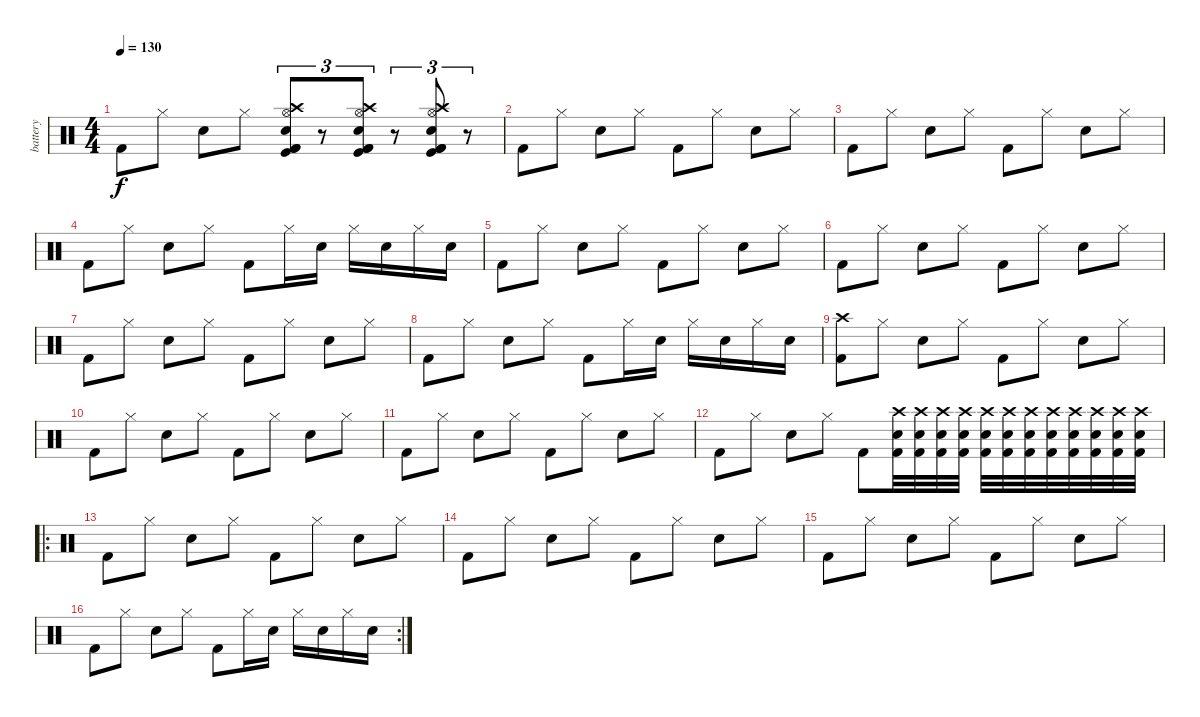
\track ("battery" "battery") {instrument percussion}
\staff {score}
\articulation defaults
\ts (4 4)
\tempo 130
\clef neutral
\ks c "Kick (hit) 2".8{dy f} "Hi-Hat (closed)".8 "Electric Snare (hit)".8 "Hi-Hat (closed)".8
("Crash high (hit)" "Hi-Hat (open)" "Electric Snare (hit)" "Kick (hit)" "Kick (hit) 2" "Kick (hit) 2").8{tu (3 2)} r.8{tu (3 2)} ("Crash high (hit)" "Hi-Hat (open)" "Electric Snare (hit)" "Kick (hit)" "Kick (hit) 2" "Kick (hit) 2").8{tu (3 2)} r.8{tu (3 2)} ("Crash high (hit)" "Hi-Hat (open)" "Electric Snare (hit)" "Kick (hit)" "Kick (hit) 2" "Kick (hit) 2").8{tu (3 2)} r.8{tu (3 2)} |
"Kick (hit) 2".8 "Hi-Hat (closed)".8 "Electric Snare (hit)".8 "Hi-Hat (closed)".8 "Kick (hit) 2".8 "Hi-Hat (closed)".8 "Electric Snare (hit)".8 "Hi-Hat (closed)".8 |
"Kick (hit) 2".8 "Hi-Hat (closed)".8 "Electric Snare (hit)".8 "Hi-Hat (closed)".8 "Kick (hit) 2".8 "Hi-Hat (closed)".8 "Electric Snare (hit)".8 "Hi-Hat (closed)".8 |
"Kick (hit) 2".8 "Hi-Hat (closed)".8 "Electric Snare (hit)".8 "Hi-Hat (closed)".8 "Kick (hit) 2".8 "Hi-Hat (closed)".16 "Electric Snare (hit)".16 "Hi-Hat (closed)".16 "Electric Snare (hit)".16 "Hi-Hat (closed)".16 "Electric Snare (hit)".16 |
"Kick (hit) 2".8 "Hi-Hat (closed)".8 "Electric Snare (hit)".8 "Hi-Hat (closed)".8 "Kick (hit) 2".8 "Hi-Hat (closed)".8 "Electric Snare (hit)".8 "Hi-Hat (closed)".8 |
"Kick (hit) 2".8 "Hi-Hat (closed)".8 "Electric Snare (hit)".8 "Hi-Hat (closed)".8 "Kick (hit) 2".8 "Hi-Hat (closed)".8 "Electric Snare (hit)".8 "Hi-Hat (closed)".8 |
"Kick (hit) 2".8 "Hi-Hat (closed)".8 "Electric Snare (hit)".8 "Hi-Hat (closed)".8 "Kick (hit) 2".8 "Hi-Hat (closed)".8 "Electric Snare (hit)".8 "Hi-Hat (closed)".8 |
"Kick (hit) 2".8 "Hi-Hat (closed)".8 "Electric Snare (hit)".8 "Hi-Hat (closed)".8 "Kick (hit) 2".8 "Hi-Hat (closed)".16 "Electric Snare (hit)".16 "Hi-Hat (closed)".16 "Electric Snare (hit)".16 "Hi-Hat (closed)".16 "Electric Snare (hit)".16 |
("Crash high (hit)" "Kick (hit) 2").8 "Hi-Hat (closed)".8 "Electric Snare (hit)".8 "Hi-Hat (closed)".8 "Kick (hit) 2".8 "Hi-Hat (closed)".8 "Electric Snare (hit)".8 "Hi-Hat (closed)".8 |
"Kick (hit) 2".8 "Hi-Hat (closed)".8 "Electric Snare (hit)".8 "Hi-Hat (closed)".8 "Kick (hit) 2".8 "Hi-Hat (closed)".8 "Electric Snare (hit)".8 "Hi-Hat (closed)".8 |
"Kick (hit) 2".8 "Hi-Hat (closed)".8 "Electric Snare (hit)".8 "Hi-Hat (closed)".8 "Kick (hit) 2".8 "Hi-Hat (closed)".8 "Electric Snare (hit)".8 "Hi-Hat (closed)".8 |
"Kick (hit) 2".8 "Hi-Hat (closed)".8 "Electric Snare (hit)".8 "Hi-Hat (closed)".8 "Kick (hit) 2".8 ("Crash high (hit)" "Kick (hit) 2" "Electric Snare (hit)").32 ("Crash high (hit)" "Kick (hit) 2" "Electric Snare (hit)").32 ("Crash high (hit)" "Kick (hit) 2" "Electric Snare (hit)").32 ("Crash high (hit)" "Kick (hit) 2" "Electric Snare (hit)").32 ("Crash high (hit)" "Kick (hit) 2" "Electric Snare (hit)").32 ("Crash high (hit)" "Kick (hit) 2" "Electric Snare (hit)").32 ("Crash high (hit)" "Kick (hit) 2" "Electric Snare (hit)").32 ("Crash high (hit)" "Kick (hit) 2" "Electric Snare (hit)").32 ("Crash high (hit)" "Kick (hit) 2" "Electric Snare (hit)").32 ("Crash high (hit)" "Kick (hit) 2" "Electric Snare (hit)").32 ("Crash high (hit)" "Kick (hit) 2" "Electric Snare (hit)").32 ("Crash high (hit)" "Kick (hit) 2" "Electric Snare (hit)").32 |
\ro "Kick (hit) 2".8 "Hi-Hat (closed)".8 "Electric Snare (hit)".8 "Hi-Hat (closed)".8 "Kick (hit) 2".8 "Hi-Hat (closed)".8 "Electric Snare (hit)".8 "Hi-Hat (closed)".8
|
"Kick (hit) 2".8 "Hi-Hat (closed)".8 "Electric Snare (hit)".8 "Hi-Hat (closed)".8 "Kick (hit) 2".8 "Hi-Hat (closed)".8 "Electric Snare (hit)".8 "Hi-Hat (closed)".8 |
"Kick (hit) 2".8 "Hi-Hat (closed)".8 "Electric Snare (hit)".8 "Hi-Hat (closed)".8 "Kick (hit) 2".8 "Hi-Hat (closed)".8 "Electric Snare (hit)".8 "Hi-Hat (closed)".8 |
\rc 2 "Kick (hit) 2".8 "Hi-Hat (closed)".8 "Electric Snare (hit)".8 "Hi-Hat (closed)".8 "Kick (hit) 2".8 "Hi-Hat (closed)".16 "Electric Snare (hit)".16 "Hi-Hat (closed)".16 "Electric Snare (hit)".16 "Hi-Hat (closed)".16 "Electric Snare (hit)".16
